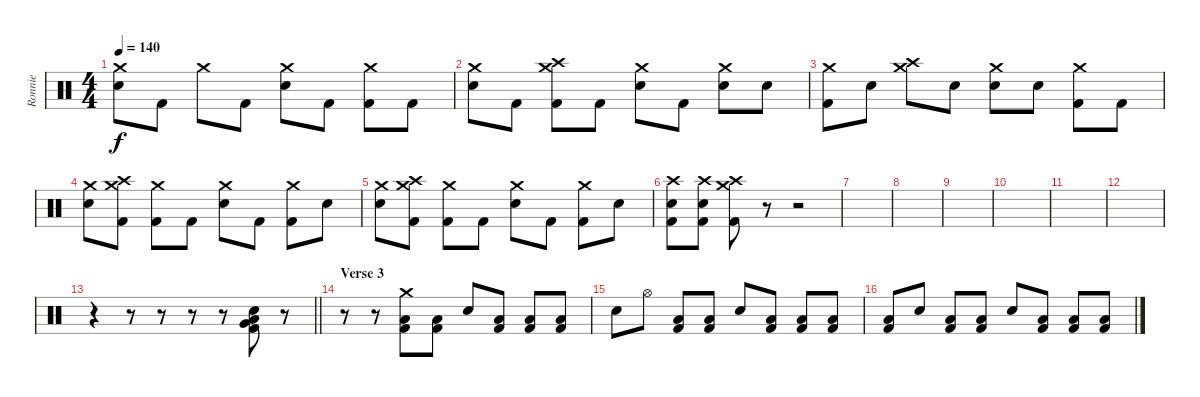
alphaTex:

\track ("Ronnie" "Ronnie") {instrument percussion}
\staff {score}
\articulation defaults
\ts (4 4)
\tempo 140
\clef neutral
\ks c
("Crash medium (hit)" "Electric Snare (hit)").8{dy f} "Kick (hit) 2".8 "Crash medium (hit)".8 "Kick (hit) 2".8 ("Crash medium (hit)" "Electric Snare (hit)").8 "Kick (hit) 2".8 ("Crash medium (hit)" "Kick (hit) 2").8 "Kick (hit) 2".8 |
("Crash medium (hit)" "Electric Snare (hit)").8 "Kick (hit) 2".8 ("Crash medium (hit)" "Crash high (hit)" "Kick (hit) 2").8 "Kick (hit) 2".8 ("Crash medium (hit)" "Electric Snare (hit)").8 "Kick (hit) 2".8 ("Crash medium (hit)" "Electric Snare (hit)").8 "Electric Snare (hit)".8 |
("Crash medium (hit)" "Kick (hit) 2").8 "Electric Snare (hit)".8 ("Crash high (hit)" "Crash medium (hit)").8 "Electric Snare (hit)".8 ("Crash medium (hit)" "Electric Snare (hit)").8 "Electric Snare (hit)".8 ("Crash medium (hit)" "Kick (hit) 2").8 "Kick (hit) 2".8 |
("Crash medium (hit)" "Electric Snare (hit)").8 ("Crash high (hit)" "Crash medium (hit)" "Kick (hit) 2").8 ("Crash medium (hit)" "Kick (hit) 2").8 "Kick (hit) 2".8 ("Crash medium (hit)" "Electric Snare (hit)").8 "Kick (hit) 2".8 ("Crash medium (hit)" "Kick (hit) 2").8 "Electric Snare (hit)".8 |
("Crash medium (hit)" "Electric Snare (hit)").8 ("Crash high (hit)" "Crash medium (hit)" "Kick (hit) 2").8 ("Crash medium (hit)" "Kick (hit) 2").8 "Kick (hit) 2".8 ("Crash medium (hit)" "Electric Snare (hit)").8 "Kick (hit) 2".8 ("Crash medium (hit)" "Kick (hit) 2").8 "Electric Snare (hit)".8 |
("Electric Snare (hit)" "Crash high (hit)" "Kick (hit) 2").8 ("Electric Snare (hit)" "Crash high (hit)" "Kick (hit) 2").8 ("Kick (hit) 2" "Crash high (hit)" "Crash medium (hit)").8 r.8 r.2 |
|
|
|
|
|
|
\barLineRight lightlight
r.4 r.8 r.8 r.8 r.8 ("Electric Snare (hit)" "Very Low Tom (hit)" "Low Tom (hit)" "Kick (hit) 2").8 r.8 |
\section ("" "Verse 3")
r.8 r.8 ("Crash medium (hit)" "Low Tom (hit)" "Kick (hit) 2").8 ("Low Tom (hit)" "Kick (hit) 2").8 "Electric Snare (hit)".8 ("Low Tom (hit)" "Kick (hit) 2").8 ("Low Tom (hit)" "Kick (hit) 2").8 ("Low Tom (hit)" "Kick (hit) 2").8 |
"Electric Snare (hit)".8 "Hi-Hat (open)".8 ("Low Tom (hit)" "Kick (hit) 2").8 ("Low Tom (hit)" "Kick (hit) 2").8 "Electric Snare (hit)".8 ("Low Tom (hit)" "Kick (hit) 2").8 ("Low Tom (hit)" "Kick (hit) 2").8 ("Low Tom (hit)" "Kick (hit) 2").8 |
("Low Tom (hit)" "Kick (hit) 2").8 "Electric Snare (hit)".8 ("Low Tom (hit)" "Kick (hit) 2").8 ("Low Tom (hit)" "Kick (hit) 2").8 "Electric Snare (hit)".8 ("Low Tom (hit)" "Kick (hit) 2").8 ("Low Tom (hit)" "Kick (hit) 2").8 ("Low Tom (hit)" "Kick (hit) 2").8
